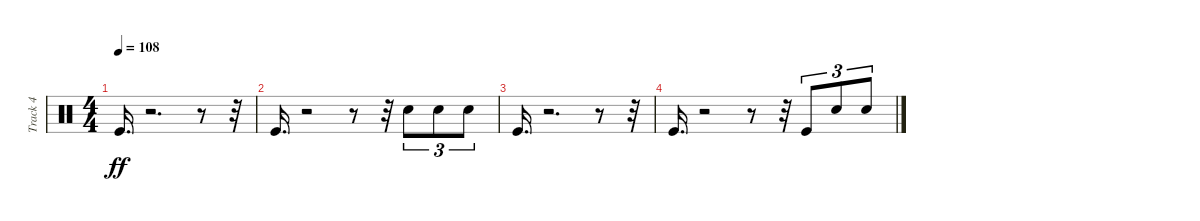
\track ("Track 4" "Track 4") {instrument percussion}
\staff {score}
\articulation defaults
\ts (4 4)
\tempo 108
\clef neutral
\ks c "Kick (hit)".16{d dy ff}
r.2{d} r.8 r.32 |
"Kick (hit)".16{d} r.2 r.8 r.32 "Snare (hit) 2".8{tu (3 2)} "Snare (hit) 2".8{tu (3 2)} "Snare (hit) 2".8{tu (3 2)} |
"Kick (hit)".16{d} r.2{d} r.8 r.32 |
"Kick (hit)".16{d} r.2 r.8 r.32 "Kick (hit)".8{tu (3 2)} "Snare (hit) 2".8{tu (3 2)} "Snare (hit) 2".8{tu (3 2)}
